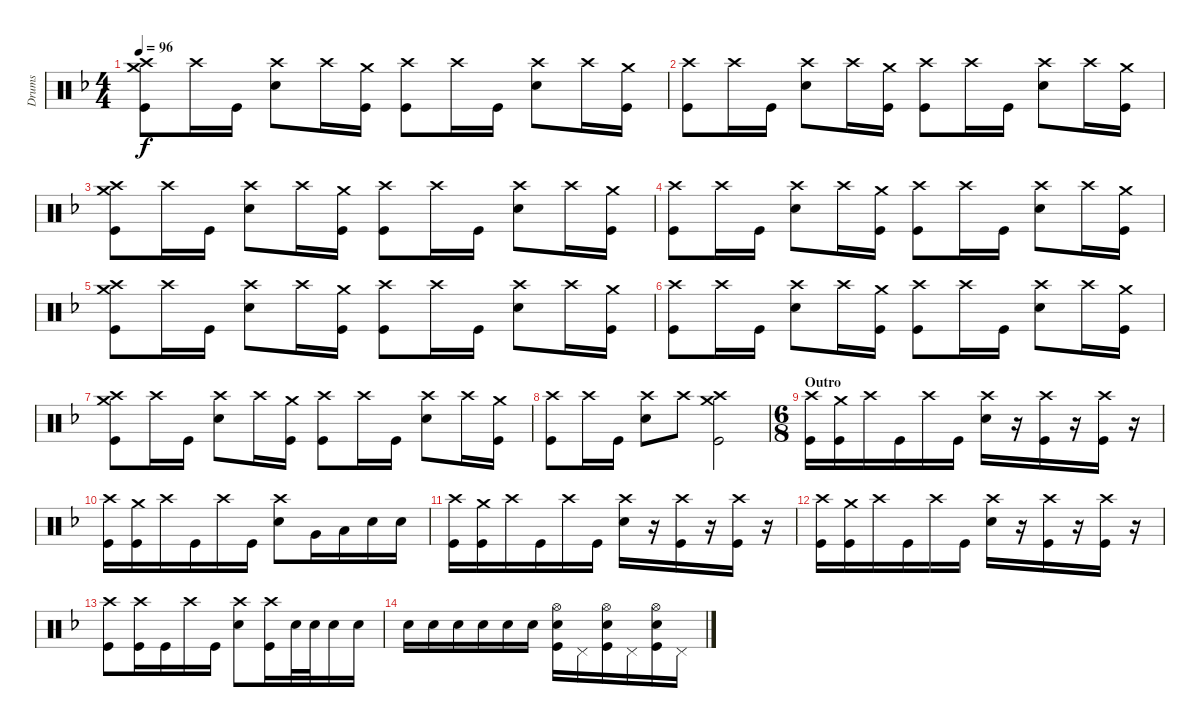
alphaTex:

\track ("Drums" "Drums") {instrument percussion}
\staff {score}
\articulation defaults
\ts (4 4)
\tempo 96
\clef neutral
\ks f
("Crash medium (hit)" "Crash high (hit)" "Kick (hit)").8{dy f} "Crash high (hit)".16 "Kick (hit)".16 ("Crash high (hit)" "Snare (hit) 2").8 "Crash high (hit)".16 ("Crash medium (hit)" "Kick (hit)").16 ("Crash high (hit)" "Kick (hit)").8 "Crash high (hit)".16 "Kick (hit)".16 ("Crash high (hit)" "Snare (hit) 2").8 "Crash high (hit)".16 ("Crash medium (hit)" "Kick (hit)").16 |
("Crash high (hit)" "Kick (hit)").8 "Crash high (hit)".16 "Kick (hit)".16 ("Crash high (hit)" "Snare (hit) 2").8 "Crash high (hit)".16 ("Crash medium (hit)" "Kick (hit)").16 ("Crash high (hit)" "Kick (hit)").8 "Crash high (hit)".16 "Kick (hit)".16 ("Crash high (hit)" "Snare (hit) 2").8 "Crash high (hit)".16 ("Crash medium (hit)" "Kick (hit)").16 |
("Crash medium (hit)" "Crash high (hit)" "Kick (hit)").8 "Crash high (hit)".16 "Kick (hit)".16 ("Crash high (hit)" "Snare (hit) 2").8 "Crash high (hit)".16 ("Crash medium (hit)" "Kick (hit)").16 ("Crash high (hit)" "Kick (hit)").8 "Crash high (hit)".16 "Kick (hit)".16 ("Crash high (hit)" "Snare (hit) 2").8 "Crash high (hit)".16 ("Crash medium (hit)" "Kick (hit)").16 |
("Crash high (hit)" "Kick (hit)").8 "Crash high (hit)".16 "Kick (hit)".16 ("Crash high (hit)" "Snare (hit) 2").8 "Crash high (hit)".16 ("Crash medium (hit)" "Kick (hit)").16 ("Crash high (hit)" "Kick (hit)").8 "Crash high (hit)".16 "Kick (hit)".16 ("Crash high (hit)" "Snare (hit) 2").8 "Crash high (hit)".16 ("Crash medium (hit)" "Kick (hit)").16 |
("Crash medium (hit)" "Crash high (hit)" "Kick (hit)").8 "Crash high (hit)".16 "Kick (hit)".16 ("Crash high (hit)" "Snare (hit) 2").8 "Crash high (hit)".16 ("Crash medium (hit)" "Kick (hit)").16 ("Crash high (hit)" "Kick (hit)").8 "Crash high (hit)".16 "Kick (hit)".16 ("Crash high (hit)" "Snare (hit) 2").8 "Crash high (hit)".16 ("Crash medium (hit)" "Kick (hit)").16 |
("Crash high (hit)" "Kick (hit)").8 "Crash high (hit)".16 "Kick (hit)".16 ("Crash high (hit)" "Snare (hit) 2").8 "Crash high (hit)".16 ("Crash medium (hit)" "Kick (hit)").16 ("Crash high (hit)" "Kick (hit)").8 "Crash high (hit)".16 "Kick (hit)".16 ("Crash high (hit)" "Snare (hit) 2").8 "Crash high (hit)".16 ("Crash medium (hit)" "Kick (hit)").16 |
("Crash medium (hit)" "Crash high (hit)" "Kick (hit)").8 "Crash high (hit)".16 "Kick (hit)".16 ("Crash high (hit)" "Snare (hit) 2").8 "Crash high (hit)".16 ("Crash medium (hit)" "Kick (hit)").16 ("Crash high (hit)" "Kick (hit)").8 "Crash high (hit)".16 "Kick (hit)".16 ("Crash high (hit)" "Snare (hit) 2").8 "Crash high (hit)".16 ("Crash medium (hit)" "Kick (hit)").16 |
("Crash high (hit)" "Kick (hit)").8 "Crash high (hit)".16 "Kick (hit)".16 ("Crash high (hit)" "Snare (hit) 2").8 "Crash high (hit)".8 ("Crash medium (hit)" "Crash high (hit)" "Kick (hit)").2 |
\ts (6 8)
\section ("" "Outro")
("Crash high (hit)" "Kick (hit)").16 ("Crash medium (hit)" "Kick (hit)").16 "Crash high (hit)".16 "Kick (hit)".16 "Crash high (hit)".16 "Kick (hit)".16 ("Crash high (hit)" "Snare (hit) 2").16 r.16 ("Crash high (hit)" "Kick (hit)").16 r.16 ("Crash high (hit)" "Kick (hit)").16 r.16 |
("Crash high (hit)" "Kick (hit)").16 ("Crash medium (hit)" "Kick (hit)").16 "Crash high (hit)".16 "Kick (hit)".16 "Crash high (hit)".16 "Kick (hit)".16 ("Crash high (hit)" "Snare (hit) 2").8 "Very Low Tom (hit)".16 "Low Floor Tom (hit)".16 "Snare (hit) 2".16 "Snare (hit) 2".16 |
("Crash high (hit)" "Kick (hit)").16 ("Crash medium (hit)" "Kick (hit)").16 "Crash high (hit)".16 "Kick (hit)".16 "Crash high (hit)".16 "Kick (hit)".16 ("Crash high (hit)" "Snare (hit) 2").16 r.16 ("Crash high (hit)" "Kick (hit)").16 r.16 ("Crash high (hit)" "Kick (hit)").16 r.16 |
("Crash high (hit)" "Kick (hit)").16 ("Crash medium (hit)" "Kick (hit)").16 "Crash high (hit)".16 "Kick (hit)".16 "Crash high (hit)".16 "Kick (hit)".16 ("Crash high (hit)" "Snare (hit) 2").16 r.16 ("Crash high (hit)" "Kick (hit)").16 r.16 ("Crash high (hit)" "Kick (hit)").16 r.16 |
("Crash high (hit)" "Kick (hit)").8 ("Crash high (hit)" "Kick (hit)").16 "Kick (hit)".16 "Crash high (hit)".16 "Kick (hit)".16 ("Crash high (hit)" "Snare (hit) 2").8 ("Crash high (hit)" "Kick (hit)").16 "Snare (hit) 2".32 "Snare (hit) 2".32 "Snare (hit) 2".16 "Snare (hit) 2".16 |
"Snare (hit) 2".16 "Snare (hit) 2".16 "Snare (hit) 2".16 "Snare (hit) 2".16 "Snare (hit) 2".16 "Snare (hit) 2".16 ("Hi-Hat (open)" "Snare (hit) 2" "Kick (hit)").16 "Pedal Hi-Hat (hit)".16 ("Hi-Hat (open)" "Snare (hit) 2" "Kick (hit)").16 "Pedal Hi-Hat (hit)".16 ("Hi-Hat (open)" "Snare (hit) 2" "Kick (hit)").16 "Pedal Hi-Hat (hit)".16
